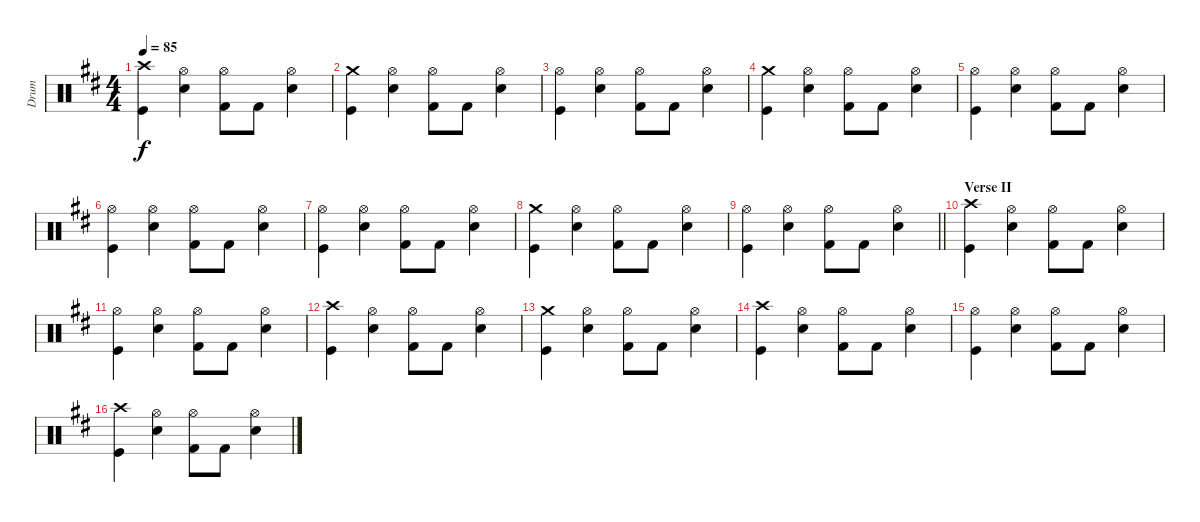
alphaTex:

\track ("Drum" "Drum") {instrument percussion}
\staff {score}
\articulation defaults
\ts (4 4)
\tempo 85
\clef neutral
\ks d
("Kick (hit)" "Crash high (hit)").4{dy f} ("Electric Snare (hit)" "Hi-Hat (open)").4 ("Kick (hit) 2" "Hi-Hat (open)").8 "Kick (hit) 2".8 ("Snare (hit) 2" "Hi-Hat (open)").4 |
("Kick (hit)" "Crash medium (hit)").4 ("Electric Snare (hit)" "Hi-Hat (open)").4 ("Kick (hit) 2" "Hi-Hat (open)").8 "Kick (hit) 2".8 ("Snare (hit) 2" "Hi-Hat (open)").4 |
("Kick (hit)" "Hi-Hat (open)").4 ("Electric Snare (hit)" "Hi-Hat (open)").4 ("Kick (hit) 2" "Hi-Hat (open)").8 "Kick (hit) 2".8 ("Snare (hit) 2" "Hi-Hat (open)").4 |
("Kick (hit)" "Crash medium (hit)").4 ("Electric Snare (hit)" "Hi-Hat (open)").4 ("Kick (hit) 2" "Hi-Hat (open)").8 "Kick (hit) 2".8 ("Snare (hit) 2" "Hi-Hat (open)").4 |
("Kick (hit)" "Hi-Hat (open)").4 ("Electric Snare (hit)" "Hi-Hat (open)").4 ("Kick (hit) 2" "Hi-Hat (open)").8 "Kick (hit) 2".8 ("Snare (hit) 2" "Hi-Hat (open)").4 |
("Kick (hit)" "Hi-Hat (open)").4 ("Electric Snare (hit)" "Hi-Hat (open)").4 ("Kick (hit) 2" "Hi-Hat (open)").8 "Kick (hit) 2".8 ("Snare (hit) 2" "Hi-Hat (open)").4 |
("Kick (hit)" "Hi-Hat (open)").4 ("Electric Snare (hit)" "Hi-Hat (open)").4 ("Kick (hit) 2" "Hi-Hat (open)").8 "Kick (hit) 2".8 ("Snare (hit) 2" "Hi-Hat (open)").4 |
("Kick (hit)" "Crash medium (hit)").4 ("Electric Snare (hit)" "Hi-Hat (open)").4 ("Kick (hit) 2" "Hi-Hat (open)").8 "Kick (hit) 2".8 ("Snare (hit) 2" "Hi-Hat (open)").4 |
\barLineRight lightlight
("Kick (hit)" "Hi-Hat (open)").4 ("Electric Snare (hit)" "Hi-Hat (open)").4 ("Kick (hit) 2" "Hi-Hat (open)").8 "Kick (hit) 2".8 ("Snare (hit) 2" "Hi-Hat (open)").4 |
\section ("" "Verse II")
("Kick (hit)" "Crash high (hit)").4 ("Electric Snare (hit)" "Hi-Hat (open)").4 ("Kick (hit) 2" "Hi-Hat (open)").8 "Kick (hit) 2".8 ("Snare (hit) 2" "Hi-Hat (open)").4 |
("Kick (hit)" "Hi-Hat (open)").4 ("Electric Snare (hit)" "Hi-Hat (open)").4 ("Kick (hit) 2" "Hi-Hat (open)").8 "Kick (hit) 2".8 ("Snare (hit) 2" "Hi-Hat (open)").4 |
("Kick (hit)" "Crash high (hit)").4 ("Electric Snare (hit)" "Hi-Hat (open)").4 ("Kick (hit) 2" "Hi-Hat (open)").8 "Kick (hit) 2".8 ("Snare (hit) 2" "Hi-Hat (open)").4 |
("Kick (hit)" "Crash medium (hit)").4 ("Electric Snare (hit)" "Hi-Hat (open)").4 ("Kick (hit) 2" "Hi-Hat (open)").8 "Kick (hit) 2".8 ("Snare (hit) 2" "Hi-Hat (open)").4 |
("Kick (hit)" "Crash high (hit)").4 ("Electric Snare (hit)" "Hi-Hat (open)").4 ("Kick (hit) 2" "Hi-Hat (open)").8 "Kick (hit) 2".8 ("Snare (hit) 2" "Hi-Hat (open)").4 |
("Kick (hit)" "Hi-Hat (open)").4 ("Electric Snare (hit)" "Hi-Hat (open)").4 ("Kick (hit) 2" "Hi-Hat (open)").8 "Kick (hit) 2".8 ("Snare (hit) 2" "Hi-Hat (open)").4 |
("Kick (hit)" "Crash high (hit)").4 ("Electric Snare (hit)" "Hi-Hat (open)").4 ("Kick (hit) 2" "Hi-Hat (open)").8 "Kick (hit) 2".8 ("Snare (hit) 2" "Hi-Hat (open)").4
